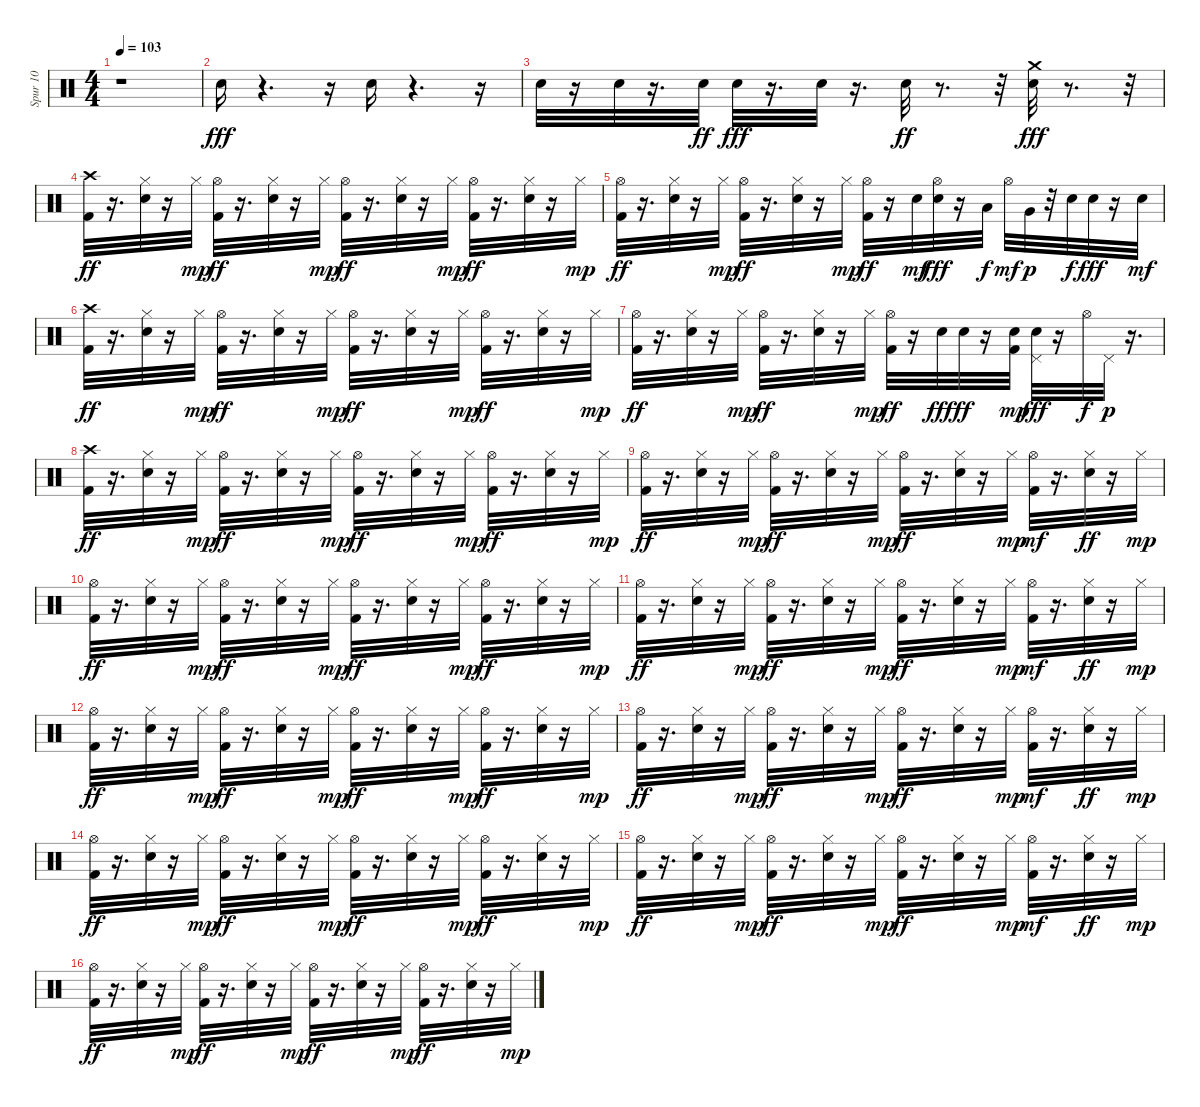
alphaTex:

\track ("Spur 10" "Spur 10") {instrument percussion}
\staff {score}
\articulation defaults
\ts (4 4)
\tempo 103
\clef neutral
\ks c
r.1{dy fff} |
"Electric Snare (hit)".16 r.4{d} r.16 "Electric Snare (hit)".16 r.4{d} r.16 |
"Electric Snare (hit)".32 r.16 "Electric Snare (hit)".32 r.16{d} "Electric Snare (hit)".32{dy ff} "Electric Snare (hit)".32{dy fff} r.16{d} "Electric Snare (hit)".32 r.16{d} "Electric Snare (hit)".32{dy ff} r.8{d} r.32 ("Crash medium (hit)" "Electric Snare (hit)").32{dy fff} r.8{d} r.32 |
("Kick (hit) 2" "Crash high (hit)").32{dy ff} r.16{d} ("Hi-Hat (closed)" "Electric Snare (hit)").32 r.16 "Hi-Hat (closed)".32{dy mp} ("Kick (hit) 2" "Hi-Hat (open)").32{dy ff} r.16{d} ("Hi-Hat (closed)" "Electric Snare (hit)").32 r.16 "Hi-Hat (closed)".32{dy mp} ("Kick (hit) 2" "Hi-Hat (open)").32{dy ff} r.16{d} ("Hi-Hat (closed)" "Electric Snare (hit)").32 r.16 "Hi-Hat (closed)".32{dy mp} ("Kick (hit) 2" "Hi-Hat (open)").32{dy ff} r.16{d} ("Hi-Hat (closed)" "Electric Snare (hit)").32 r.16 "Hi-Hat (closed)".32{dy mp} |
("Kick (hit) 2" "Hi-Hat (open)").32{dy ff} r.16{d} ("Hi-Hat (closed)" "Electric Snare (hit)").32 r.16 "Hi-Hat (closed)".32{dy mp} ("Kick (hit) 2" "Hi-Hat (open)").32{dy ff} r.16{d} ("Hi-Hat (closed)" "Electric Snare (hit)").32 r.16 "Hi-Hat (closed)".32{dy mp} ("Kick (hit) 2" "Hi-Hat (open)").32{dy ff} r.16 "Electric Snare (hit)".32{dy mf} ("Hi-Hat (open)" "Electric Snare (hit)").32{dy fff} r.16 "Low Tom (hit)".32{dy f} "Hi-Hat (open)".32{dy mf} "Very Low Tom (hit)".32{dy p} r.32 "Electric Snare (hit)".32{dy f} "Electric Snare (hit)".32{dy fff} r.16 "Electric Snare (hit)".32{dy mf} |
("Kick (hit) 2" "Crash high (hit)").32{dy ff} r.16{d} ("Hi-Hat (closed)" "Electric Snare (hit)").32 r.16 "Hi-Hat (closed)".32{dy mp} ("Kick (hit) 2" "Hi-Hat (open)").32{dy ff} r.16{d} ("Hi-Hat (closed)" "Electric Snare (hit)").32 r.16 "Hi-Hat (closed)".32{dy mp} ("Kick (hit) 2" "Hi-Hat (open)").32{dy ff} r.16{d} ("Hi-Hat (closed)" "Electric Snare (hit)").32 r.16 "Hi-Hat (closed)".32{dy mp} ("Kick (hit) 2" "Hi-Hat (open)").32{dy ff} r.16{d} ("Hi-Hat (closed)" "Electric Snare (hit)").32 r.16 "Hi-Hat (closed)".32{dy mp} |
("Kick (hit) 2" "Hi-Hat (open)").32{dy ff} r.16{d} ("Hi-Hat (closed)" "Electric Snare (hit)").32 r.16 "Hi-Hat (closed)".32{dy mp} ("Kick (hit) 2" "Hi-Hat (open)").32{dy ff} r.16{d} ("Hi-Hat (closed)" "Electric Snare (hit)").32 r.16 "Hi-Hat (closed)".32{dy mp} ("Kick (hit) 2" "Hi-Hat (open)").32{dy ff} r.16 "Electric Snare (hit)".32{dy fff} "Electric Snare (hit)".32{dy ff} r.16 ("Kick (hit) 2" "Electric Snare (hit)").32{dy mp} ("Pedal Hi-Hat (hit)" "Electric Snare (hit)").32{dy fff} r.16 "Hi-Hat (open)".32{dy f} "Pedal Hi-Hat (hit)".32{dy p} r.16{d} |
("Kick (hit) 2" "Crash high (hit)").32{dy ff} r.16{d} ("Hi-Hat (closed)" "Electric Snare (hit)").32 r.16 "Hi-Hat (closed)".32{dy mp} ("Kick (hit) 2" "Hi-Hat (open)").32{dy ff} r.16{d} ("Hi-Hat (closed)" "Electric Snare (hit)").32 r.16 "Hi-Hat (closed)".32{dy mp} ("Kick (hit) 2" "Hi-Hat (open)").32{dy ff} r.16{d} ("Hi-Hat (closed)" "Electric Snare (hit)").32 r.16 "Hi-Hat (closed)".32{dy mp} ("Kick (hit) 2" "Hi-Hat (open)").32{dy ff} r.16{d} ("Hi-Hat (closed)" "Electric Snare (hit)").32 r.16 "Hi-Hat (closed)".32{dy mp} |
("Kick (hit) 2" "Hi-Hat (open)").32{dy ff} r.16{d} ("Hi-Hat (closed)" "Electric Snare (hit)").32 r.16 "Hi-Hat (closed)".32{dy mp} ("Kick (hit) 2" "Hi-Hat (open)").32{dy ff} r.16{d} ("Hi-Hat (closed)" "Electric Snare (hit)").32 r.16 "Hi-Hat (closed)".32{dy mp} ("Kick (hit) 2" "Hi-Hat (open)").32{dy ff} r.16{d} ("Hi-Hat (closed)" "Electric Snare (hit)").32 r.16 "Hi-Hat (closed)".32{dy mp} ("Kick (hit) 2" "Hi-Hat (open)").32{dy mf} r.16{d} ("Hi-Hat (closed)" "Electric Snare (hit)").32{dy ff} r.16 "Hi-Hat (closed)".32{dy mp} |
("Kick (hit) 2" "Hi-Hat (open)").32{dy ff} r.16{d} ("Hi-Hat (closed)" "Electric Snare (hit)").32 r.16 "Hi-Hat (closed)".32{dy mp} ("Kick (hit) 2" "Hi-Hat (open)").32{dy ff} r.16{d} ("Hi-Hat (closed)" "Electric Snare (hit)").32 r.16 "Hi-Hat (closed)".32{dy mp} ("Kick (hit) 2" "Hi-Hat (open)").32{dy ff} r.16{d} ("Hi-Hat (closed)" "Electric Snare (hit)").32 r.16 "Hi-Hat (closed)".32{dy mp} ("Kick (hit) 2" "Hi-Hat (open)").32{dy ff} r.16{d} ("Hi-Hat (closed)" "Electric Snare (hit)").32 r.16 "Hi-Hat (closed)".32{dy mp} |
("Kick (hit) 2" "Hi-Hat (open)").32{dy ff} r.16{d} ("Hi-Hat (closed)" "Electric Snare (hit)").32 r.16 "Hi-Hat (closed)".32{dy mp} ("Kick (hit) 2" "Hi-Hat (open)").32{dy ff} r.16{d} ("Hi-Hat (closed)" "Electric Snare (hit)").32 r.16 "Hi-Hat (closed)".32{dy mp} ("Kick (hit) 2" "Hi-Hat (open)").32{dy ff} r.16{d} ("Hi-Hat (closed)" "Electric Snare (hit)").32 r.16 "Hi-Hat (closed)".32{dy mp} ("Kick (hit) 2" "Hi-Hat (open)").32{dy mf} r.16{d} ("Hi-Hat (closed)" "Electric Snare (hit)").32{dy ff} r.16 "Hi-Hat (closed)".32{dy mp} |
("Kick (hit) 2" "Hi-Hat (open)").32{dy ff} r.16{d} ("Hi-Hat (closed)" "Electric Snare (hit)").32 r.16 "Hi-Hat (closed)".32{dy mp} ("Kick (hit) 2" "Hi-Hat (open)").32{dy ff} r.16{d} ("Hi-Hat (closed)" "Electric Snare (hit)").32 r.16 "Hi-Hat (closed)".32{dy mp} ("Kick (hit) 2" "Hi-Hat (open)").32{dy ff} r.16{d} ("Hi-Hat (closed)" "Electric Snare (hit)").32 r.16 "Hi-Hat (closed)".32{dy mp} ("Kick (hit) 2" "Hi-Hat (open)").32{dy ff} r.16{d} ("Hi-Hat (closed)" "Electric Snare (hit)").32 r.16 "Hi-Hat (closed)".32{dy mp} |
("Kick (hit) 2" "Hi-Hat (open)").32{dy ff} r.16{d} ("Hi-Hat (closed)" "Electric Snare (hit)").32 r.16 "Hi-Hat (closed)".32{dy mp} ("Kick (hit) 2" "Hi-Hat (open)").32{dy ff} r.16{d} ("Hi-Hat (closed)" "Electric Snare (hit)").32 r.16 "Hi-Hat (closed)".32{dy mp} ("Kick (hit) 2" "Hi-Hat (open)").32{dy ff} r.16{d} ("Hi-Hat (closed)" "Electric Snare (hit)").32 r.16 "Hi-Hat (closed)".32{dy mp} ("Kick (hit) 2" "Hi-Hat (open)").32{dy mf} r.16{d} ("Hi-Hat (closed)" "Electric Snare (hit)").32{dy ff} r.16 "Hi-Hat (closed)".32{dy mp} |
("Kick (hit) 2" "Hi-Hat (open)").32{dy ff} r.16{d} ("Hi-Hat (closed)" "Electric Snare (hit)").32 r.16 "Hi-Hat (closed)".32{dy mp} ("Kick (hit) 2" "Hi-Hat (open)").32{dy ff} r.16{d} ("Hi-Hat (closed)" "Electric Snare (hit)").32 r.16 "Hi-Hat (closed)".32{dy mp} ("Kick (hit) 2" "Hi-Hat (open)").32{dy ff} r.16{d} ("Hi-Hat (closed)" "Electric Snare (hit)").32 r.16 "Hi-Hat (closed)".32{dy mp} ("Kick (hit) 2" "Hi-Hat (open)").32{dy ff} r.16{d} ("Hi-Hat (closed)" "Electric Snare (hit)").32 r.16 "Hi-Hat (closed)".32{dy mp} |
("Kick (hit) 2" "Hi-Hat (open)").32{dy ff} r.16{d} ("Hi-Hat (closed)" "Electric Snare (hit)").32 r.16 "Hi-Hat (closed)".32{dy mp} ("Kick (hit) 2" "Hi-Hat (open)").32{dy ff} r.16{d} ("Hi-Hat (closed)" "Electric Snare (hit)").32 r.16 "Hi-Hat (closed)".32{dy mp} ("Kick (hit) 2" "Hi-Hat (open)").32{dy ff} r.16{d} ("Hi-Hat (closed)" "Electric Snare (hit)").32 r.16 "Hi-Hat (closed)".32{dy mp} ("Kick (hit) 2" "Hi-Hat (open)").32{dy mf} r.16{d} ("Hi-Hat (closed)" "Electric Snare (hit)").32{dy ff} r.16 "Hi-Hat (closed)".32{dy mp} |
("Kick (hit) 2" "Hi-Hat (open)").32{dy ff} r.16{d} ("Hi-Hat (closed)" "Electric Snare (hit)").32 r.16 "Hi-Hat (closed)".32{dy mp} ("Kick (hit) 2" "Hi-Hat (open)").32{dy ff} r.16{d} ("Hi-Hat (closed)" "Electric Snare (hit)").32 r.16 "Hi-Hat (closed)".32{dy mp} ("Kick (hit) 2" "Hi-Hat (open)").32{dy ff} r.16{d} ("Hi-Hat (closed)" "Electric Snare (hit)").32 r.16 "Hi-Hat (closed)".32{dy mp} ("Kick (hit) 2" "Hi-Hat (open)").32{dy ff} r.16{d} ("Hi-Hat (closed)" "Electric Snare (hit)").32 r.16 "Hi-Hat (closed)".32{dy mp}
